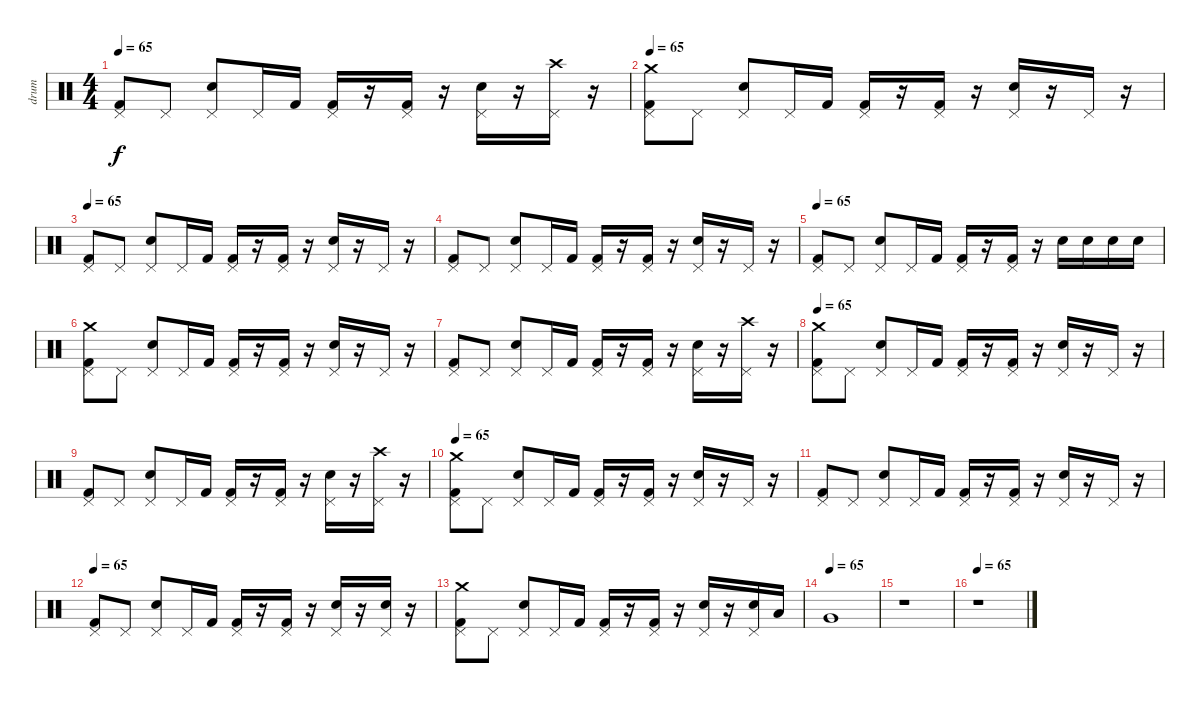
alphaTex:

\track ("drum" "drum") {instrument percussion}
\staff {score}
\articulation defaults
\ts (4 4)
\tempo 65
\clef neutral
\ks c
("Pedal Hi-Hat (hit)" "Kick (hit) 2").8{dy f} "Pedal Hi-Hat (hit)".8 ("Pedal Hi-Hat (hit)" "Electric Snare (hit)").8 "Pedal Hi-Hat (hit)".16 "Kick (hit) 2".16 ("Pedal Hi-Hat (hit)" "Kick (hit) 2").16 r.16 ("Pedal Hi-Hat (hit)" "Kick (hit) 2").16 r.16 ("Pedal Hi-Hat (hit)" "Electric Snare (hit)").16 r.16 ("Pedal Hi-Hat (hit)" "Crash high (hit)").16 r.16 |
\tempo 65
("Pedal Hi-Hat (hit)" "Crash medium (hit)" "Kick (hit) 2").8 "Pedal Hi-Hat (hit)".8 ("Pedal Hi-Hat (hit)" "Electric Snare (hit)").8 "Pedal Hi-Hat (hit)".16 "Kick (hit) 2".16 ("Pedal Hi-Hat (hit)" "Kick (hit) 2").16 r.16 ("Pedal Hi-Hat (hit)" "Kick (hit) 2").16 r.16 ("Pedal Hi-Hat (hit)" "Electric Snare (hit)").16 r.16 "Pedal Hi-Hat (hit)".16 r.16 |
\tempo 65
("Pedal Hi-Hat (hit)" "Kick (hit) 2").8 "Pedal Hi-Hat (hit)".8 ("Pedal Hi-Hat (hit)" "Electric Snare (hit)").8 "Pedal Hi-Hat (hit)".16 "Kick (hit) 2".16 ("Pedal Hi-Hat (hit)" "Kick (hit) 2").16 r.16 ("Pedal Hi-Hat (hit)" "Kick (hit) 2").16 r.16 ("Pedal Hi-Hat (hit)" "Electric Snare (hit)").16 r.16 "Pedal Hi-Hat (hit)".16 r.16 |
("Pedal Hi-Hat (hit)" "Kick (hit) 2").8 "Pedal Hi-Hat (hit)".8 ("Pedal Hi-Hat (hit)" "Electric Snare (hit)").8 "Pedal Hi-Hat (hit)".16 "Kick (hit) 2".16 ("Pedal Hi-Hat (hit)" "Kick (hit) 2").16 r.16 ("Pedal Hi-Hat (hit)" "Kick (hit) 2").16 r.16 ("Pedal Hi-Hat (hit)" "Electric Snare (hit)").16 r.16 "Pedal Hi-Hat (hit)".16 r.16 |
\tempo 65
("Pedal Hi-Hat (hit)" "Kick (hit) 2").8 "Pedal Hi-Hat (hit)".8 ("Pedal Hi-Hat (hit)" "Electric Snare (hit)").8 "Pedal Hi-Hat (hit)".16 "Kick (hit) 2".16 ("Pedal Hi-Hat (hit)" "Kick (hit) 2").16 r.16 ("Pedal Hi-Hat (hit)" "Kick (hit) 2").16 r.16 "Electric Snare (hit)".16 "Electric Snare (hit)".16 "Electric Snare (hit)".16 "Electric Snare (hit)".16 |
("Pedal Hi-Hat (hit)" "Crash medium (hit)" "Kick (hit) 2").8 "Pedal Hi-Hat (hit)".8 ("Pedal Hi-Hat (hit)" "Electric Snare (hit)").8 "Pedal Hi-Hat (hit)".16 "Kick (hit) 2".16 ("Pedal Hi-Hat (hit)" "Kick (hit) 2").16 r.16 ("Pedal Hi-Hat (hit)" "Kick (hit) 2").16 r.16 ("Pedal Hi-Hat (hit)" "Electric Snare (hit)").16 r.16 "Pedal Hi-Hat (hit)".16 r.16 |
("Pedal Hi-Hat (hit)" "Kick (hit) 2").8 "Pedal Hi-Hat (hit)".8 ("Pedal Hi-Hat (hit)" "Electric Snare (hit)").8 "Pedal Hi-Hat (hit)".16 "Kick (hit) 2".16 ("Pedal Hi-Hat (hit)" "Kick (hit) 2").16 r.16 ("Pedal Hi-Hat (hit)" "Kick (hit) 2").16 r.16 ("Pedal Hi-Hat (hit)" "Electric Snare (hit)").16 r.16 ("Pedal Hi-Hat (hit)" "Crash high (hit)").16 r.16 |
\tempo 65
("Pedal Hi-Hat (hit)" "Crash medium (hit)" "Kick (hit) 2").8 "Pedal Hi-Hat (hit)".8 ("Pedal Hi-Hat (hit)" "Electric Snare (hit)").8 "Pedal Hi-Hat (hit)".16 "Kick (hit) 2".16 ("Pedal Hi-Hat (hit)" "Kick (hit) 2").16 r.16 ("Pedal Hi-Hat (hit)" "Kick (hit) 2").16 r.16 ("Pedal Hi-Hat (hit)" "Electric Snare (hit)").16 r.16 "Pedal Hi-Hat (hit)".16 r.16 |
("Pedal Hi-Hat (hit)" "Kick (hit) 2").8 "Pedal Hi-Hat (hit)".8 ("Pedal Hi-Hat (hit)" "Electric Snare (hit)").8 "Pedal Hi-Hat (hit)".16 "Kick (hit) 2".16 ("Pedal Hi-Hat (hit)" "Kick (hit) 2").16 r.16 ("Pedal Hi-Hat (hit)" "Kick (hit) 2").16 r.16 ("Pedal Hi-Hat (hit)" "Electric Snare (hit)").16 r.16 ("Pedal Hi-Hat (hit)" "Crash high (hit)").16 r.16 |
\tempo 65
("Pedal Hi-Hat (hit)" "Crash medium (hit)" "Kick (hit) 2").8 "Pedal Hi-Hat (hit)".8 ("Pedal Hi-Hat (hit)" "Electric Snare (hit)").8 "Pedal Hi-Hat (hit)".16 "Kick (hit) 2".16 ("Pedal Hi-Hat (hit)" "Kick (hit) 2").16 r.16 ("Pedal Hi-Hat (hit)" "Kick (hit) 2").16 r.16 ("Pedal Hi-Hat (hit)" "Electric Snare (hit)").16 r.16 "Pedal Hi-Hat (hit)".16 r.16 |
("Pedal Hi-Hat (hit)" "Kick (hit) 2").8 "Pedal Hi-Hat (hit)".8 ("Pedal Hi-Hat (hit)" "Electric Snare (hit)").8 "Pedal Hi-Hat (hit)".16 "Kick (hit) 2".16 ("Pedal Hi-Hat (hit)" "Kick (hit) 2").16 r.16 ("Pedal Hi-Hat (hit)" "Kick (hit) 2").16 r.16 ("Pedal Hi-Hat (hit)" "Electric Snare (hit)").16 r.16 "Pedal Hi-Hat (hit)".16 r.16 |
\tempo 65
("Pedal Hi-Hat (hit)" "Kick (hit) 2").8 "Pedal Hi-Hat (hit)".8 ("Pedal Hi-Hat (hit)" "Electric Snare (hit)").8 "Pedal Hi-Hat (hit)".16 "Kick (hit) 2".16 ("Pedal Hi-Hat (hit)" "Kick (hit) 2").16 r.16 ("Pedal Hi-Hat (hit)" "Kick (hit) 2").16 r.16 ("Pedal Hi-Hat (hit)" "Electric Snare (hit)").16 r.16 ("Pedal Hi-Hat (hit)" "Electric Snare (hit)").16 r.16 |
("Pedal Hi-Hat (hit)" "Crash medium (hit)" "Kick (hit) 2").8 "Pedal Hi-Hat (hit)".8 ("Pedal Hi-Hat (hit)" "Electric Snare (hit)").8 "Pedal Hi-Hat (hit)".16 "Kick (hit) 2".16 ("Pedal Hi-Hat (hit)" "Kick (hit) 2").16 r.16 ("Pedal Hi-Hat (hit)" "Kick (hit) 2").16 r.16 ("Pedal Hi-Hat (hit)" "Electric Snare (hit)").16 r.16 ("Pedal Hi-Hat (hit)" "Electric Snare (hit)").16 "Low Tom (hit)".16 |
\tempo (65)
"Very Low Tom (hit)".1 |
r.1 |
\tempo 65
r.1
